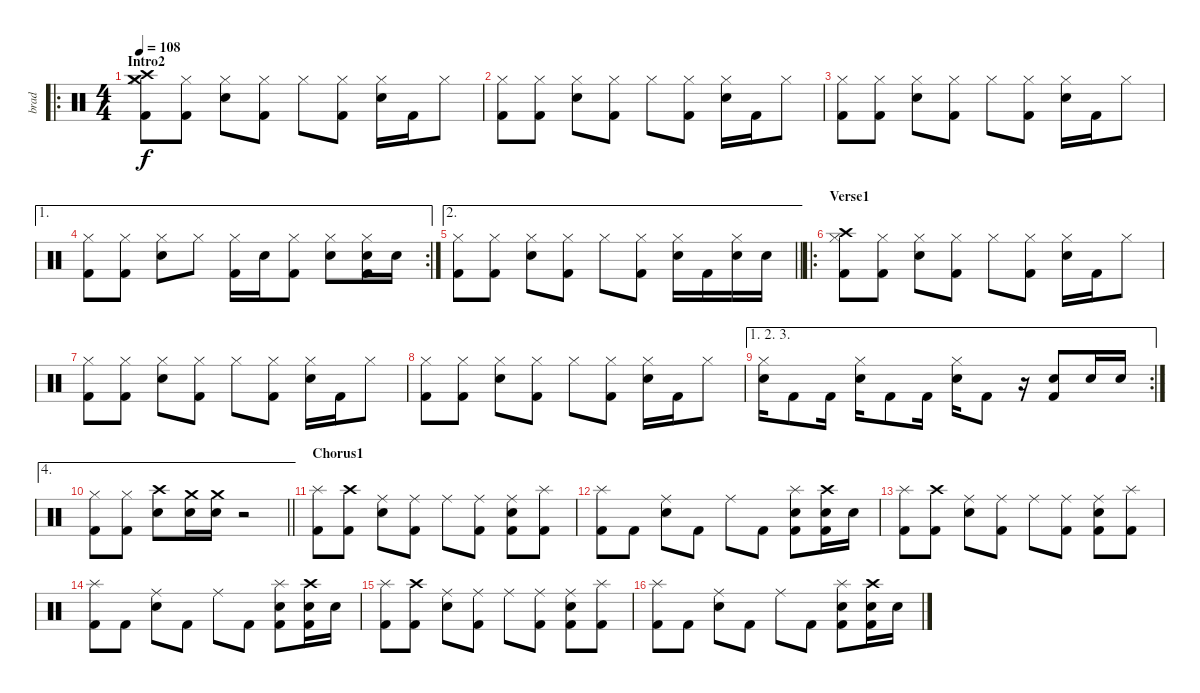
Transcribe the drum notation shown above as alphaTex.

\track ("brad" "brad") {instrument percussion}
\staff {score}
\articulation defaults
\ro
\ts (4 4)
\section ("" "Intro2")
\tempo 108
\clef neutral
\ks c
("Crash medium (hit)" "Crash high (hit)" "Hi-Hat (closed)" "Kick (hit) 2").8{dy f} ("Hi-Hat (closed)" "Kick (hit) 2").8 ("Hi-Hat (closed)" "Electric Snare (hit)").8 ("Hi-Hat (closed)" "Kick (hit) 2").8 "Hi-Hat (closed)".8 ("Hi-Hat (closed)" "Kick (hit) 2").8 ("Hi-Hat (closed)" "Electric Snare (hit)").16 "Kick (hit) 2".16 "Hi-Hat (closed)".8 |
("Hi-Hat (closed)" "Kick (hit) 2").8 ("Hi-Hat (closed)" "Kick (hit) 2").8 ("Hi-Hat (closed)" "Electric Snare (hit)").8 ("Hi-Hat (closed)" "Kick (hit) 2").8 "Hi-Hat (closed)".8 ("Hi-Hat (closed)" "Kick (hit) 2").8 ("Hi-Hat (closed)" "Electric Snare (hit)").16 "Kick (hit) 2".16 "Hi-Hat (closed)".8 |
("Hi-Hat (closed)" "Kick (hit) 2").8 ("Hi-Hat (closed)" "Kick (hit) 2").8 ("Hi-Hat (closed)" "Electric Snare (hit)").8 ("Hi-Hat (closed)" "Kick (hit) 2").8 "Hi-Hat (closed)".8 ("Hi-Hat (closed)" "Kick (hit) 2").8 ("Hi-Hat (closed)" "Electric Snare (hit)").16 "Kick (hit) 2".16 "Hi-Hat (closed)".8 |
\ae 1
\rc 2
("Hi-Hat (closed)" "Kick (hit) 2").8 ("Hi-Hat (closed)" "Kick (hit) 2").8 ("Hi-Hat (closed)" "Electric Snare (hit)").8 "Hi-Hat (closed)".8 ("Hi-Hat (closed)" "Kick (hit) 2").16 "Electric Snare (hit)".16 ("Hi-Hat (closed)" "Kick (hit) 2").8 ("Hi-Hat (closed)" "Electric Snare (hit)").8 ("Hi-Hat (closed)" "Electric Snare (hit)" "Kick (hit) 2").16 "Electric Snare (hit)".16 |
\ae 2
\barLineRight lightlight
("Hi-Hat (closed)" "Kick (hit) 2").8 ("Hi-Hat (closed)" "Kick (hit) 2").8 ("Hi-Hat (closed)" "Electric Snare (hit)").8 ("Hi-Hat (closed)" "Kick (hit) 2").8 "Hi-Hat (closed)".8 ("Hi-Hat (closed)" "Kick (hit) 2").8 ("Hi-Hat (closed)" "Electric Snare (hit)").16 "Kick (hit) 2".16 ("Hi-Hat (closed)" "Electric Snare (hit)").16 "Electric Snare (hit)".16 |
\ro
\section ("" "Verse1")
("Crash high (hit)" "Hi-Hat (closed)" "Kick (hit) 2").8 ("Hi-Hat (closed)" "Kick (hit) 2").8 ("Hi-Hat (closed)" "Electric Snare (hit)").8 ("Hi-Hat (closed)" "Kick (hit) 2").8 "Hi-Hat (closed)".8 ("Hi-Hat (closed)" "Kick (hit) 2").8 ("Hi-Hat (closed)" "Electric Snare (hit)").16 "Kick (hit) 2".16 "Hi-Hat (closed)".8 |
("Hi-Hat (closed)" "Kick (hit) 2").8 ("Hi-Hat (closed)" "Kick (hit) 2").8 ("Hi-Hat (closed)" "Electric Snare (hit)").8 ("Hi-Hat (closed)" "Kick (hit) 2").8 "Hi-Hat (closed)".8 ("Hi-Hat (closed)" "Kick (hit) 2").8 ("Hi-Hat (closed)" "Electric Snare (hit)").16 "Kick (hit) 2".16 "Hi-Hat (closed)".8 |
("Hi-Hat (closed)" "Kick (hit) 2").8 ("Hi-Hat (closed)" "Kick (hit) 2").8 ("Hi-Hat (closed)" "Electric Snare (hit)").8 ("Hi-Hat (closed)" "Kick (hit) 2").8 "Hi-Hat (closed)".8 ("Hi-Hat (closed)" "Kick (hit) 2").8 ("Hi-Hat (closed)" "Electric Snare (hit)").16 "Kick (hit) 2".16 "Hi-Hat (closed)".8 |
\ae (1 2 3)
\rc 2
("Hi-Hat (closed)" "Electric Snare (hit)").16 "Kick (hit) 2".8 "Kick (hit) 2".16 ("Hi-Hat (closed)" "Electric Snare (hit)").16 "Kick (hit) 2".8 "Kick (hit) 2".16 ("Hi-Hat (closed)" "Electric Snare (hit)").16 "Kick (hit) 2".8 r.16 ("Electric Snare (hit)" "Kick (hit) 2").8 "Electric Snare (hit)".16 "Electric Snare (hit)".16 |
\ae 4
\barLineRight lightlight
("Hi-Hat (closed)" "Kick (hit) 2").8 ("Hi-Hat (closed)" "Kick (hit) 2").8 ("Crash high (hit)" "Electric Snare (hit)").8 ("Crash medium (hit)" "Electric Snare (hit)").16 ("Crash medium (hit)" "Electric Snare (hit)").16 r.2 |
\section ("" "Chorus1")
("Splash (hit)" "Kick (hit) 2").8 ("Crash high (hit)" "Kick (hit) 2").8 ("Ride (middle)" "Electric Snare (hit)").8 ("Ride (middle)" "Kick (hit) 2").8 "Ride (middle)".8 ("Ride (middle)" "Kick (hit) 2").8 ("Ride (middle)" "Electric Snare (hit)" "Kick (hit) 2").8 ("Splash (hit)" "Kick (hit) 2").8 |
("Splash (hit)" "Kick (hit) 2").8 "Kick (hit) 2".8 ("Ride (middle)" "Electric Snare (hit)").8 "Kick (hit) 2".8 "Ride (middle)".8 "Kick (hit) 2".8 ("Splash (hit)" "Electric Snare (hit)" "Kick (hit) 2").8 ("Crash high (hit)" "Electric Snare (hit)" "Kick (hit) 2").16 "Electric Snare (hit)".16 |
("Splash (hit)" "Kick (hit) 2").8 ("Crash high (hit)" "Kick (hit) 2").8 ("Ride (middle)" "Electric Snare (hit)").8 ("Ride (middle)" "Kick (hit) 2").8 "Ride (middle)".8 ("Ride (middle)" "Kick (hit) 2").8 ("Ride (middle)" "Electric Snare (hit)" "Kick (hit) 2").8 ("Splash (hit)" "Kick (hit) 2").8 |
("Splash (hit)" "Kick (hit) 2").8 "Kick (hit) 2".8 ("Ride (middle)" "Electric Snare (hit)").8 "Kick (hit) 2".8 "Ride (middle)".8 "Kick (hit) 2".8 ("Splash (hit)" "Electric Snare (hit)" "Kick (hit) 2").8 ("Crash high (hit)" "Electric Snare (hit)" "Kick (hit) 2").16 "Electric Snare (hit)".16 |
("Splash (hit)" "Kick (hit) 2").8 ("Crash high (hit)" "Kick (hit) 2").8 ("Ride (middle)" "Electric Snare (hit)").8 ("Ride (middle)" "Kick (hit) 2").8 "Ride (middle)".8 ("Ride (middle)" "Kick (hit) 2").8 ("Ride (middle)" "Electric Snare (hit)" "Kick (hit) 2").8 ("Splash (hit)" "Kick (hit) 2").8 |
("Splash (hit)" "Kick (hit) 2").8 "Kick (hit) 2".8 ("Ride (middle)" "Electric Snare (hit)").8 "Kick (hit) 2".8 "Ride (middle)".8 "Kick (hit) 2".8 ("Splash (hit)" "Electric Snare (hit)" "Kick (hit) 2").8 ("Crash high (hit)" "Electric Snare (hit)" "Kick (hit) 2").16 "Electric Snare (hit)".16
